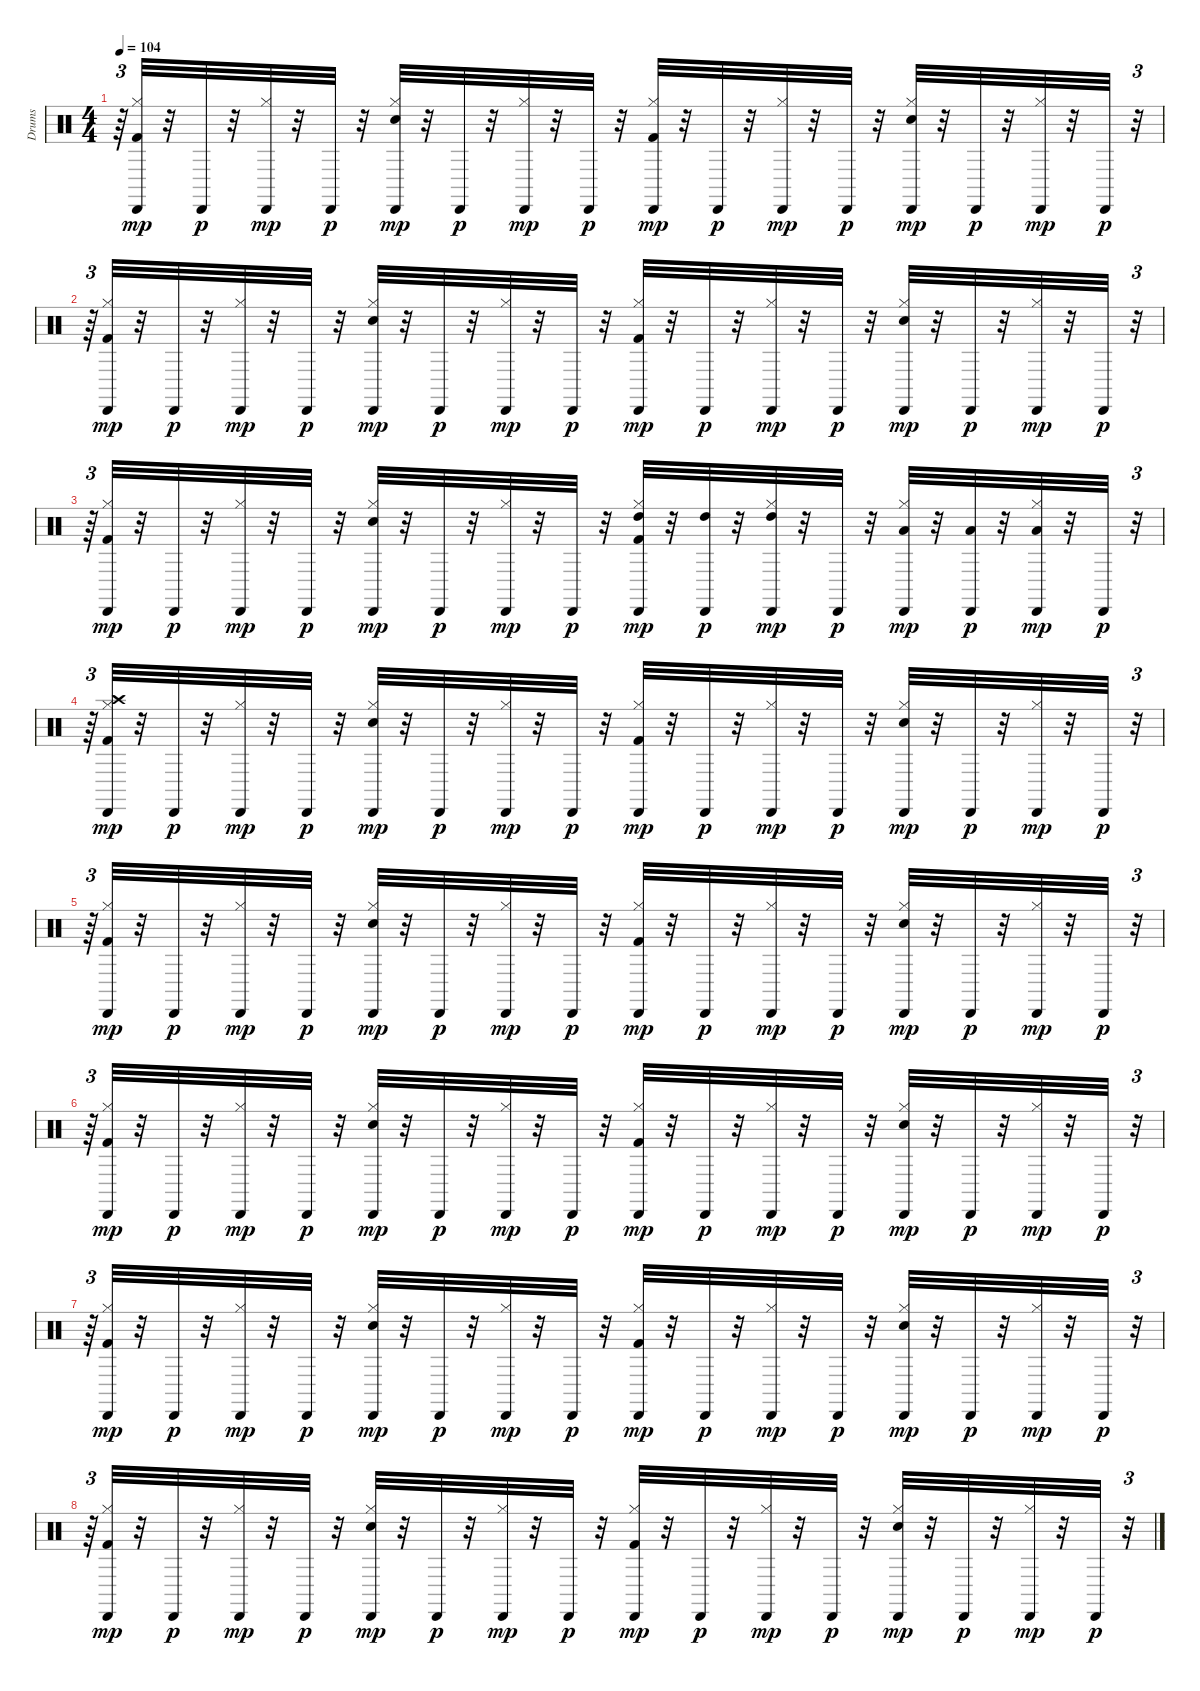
\track ("Drums               " "Drums     ") {instrument percussion}
\staff {score}
\articulation defaults
\ts (4 4)
\tempo 104
\clef neutral
\ks c
r.64{tu (3 2) dy p} ("Kick (hit) 2" "Hi-Hat (closed)" "Cabasa (hit)").32{dy mp} r.32 "Cabasa (hit)".32{dy p} r.32 ("Hi-Hat (closed)" "Cabasa (hit)").32{dy mp} r.32 "Cabasa (hit)".32{dy p} r.32 ("Snare (hit) 2" "Hi-Hat (closed)" "Cabasa (hit)").32{dy mp} r.32 "Cabasa (hit)".32{dy p} r.32 ("Hi-Hat (closed)" "Cabasa (hit)").32{dy mp} r.32 "Cabasa (hit)".32{dy p} r.32 ("Kick (hit) 2" "Hi-Hat (closed)" "Cabasa (hit)").32{dy mp} r.32 "Cabasa (hit)".32{dy p} r.32 ("Hi-Hat (closed)" "Cabasa (hit)").32{dy mp} r.32 "Cabasa (hit)".32{dy p} r.32 ("Snare (hit) 2" "Hi-Hat (closed)" "Cabasa (hit)").32{dy mp} r.32 "Cabasa (hit)".32{dy p} r.32 ("Hi-Hat (closed)" "Cabasa (hit)").32{dy mp} r.32 "Cabasa (hit)".32{dy p} r.32{tu (3 2)} |
r.64{tu (3 2)} ("Kick (hit) 2" "Hi-Hat (closed)" "Cabasa (hit)").32{dy mp} r.32 "Cabasa (hit)".32{dy p} r.32 ("Hi-Hat (closed)" "Cabasa (hit)").32{dy mp} r.32 "Cabasa (hit)".32{dy p} r.32 ("Snare (hit) 2" "Hi-Hat (closed)" "Cabasa (hit)").32{dy mp} r.32 "Cabasa (hit)".32{dy p} r.32 ("Hi-Hat (closed)" "Cabasa (hit)").32{dy mp} r.32 "Cabasa (hit)".32{dy p} r.32 ("Kick (hit) 2" "Hi-Hat (closed)" "Cabasa (hit)").32{dy mp} r.32 "Cabasa (hit)".32{dy p} r.32 ("Hi-Hat (closed)" "Cabasa (hit)").32{dy mp} r.32 "Cabasa (hit)".32{dy p} r.32 ("Snare (hit) 2" "Hi-Hat (closed)" "Cabasa (hit)").32{dy mp} r.32 "Cabasa (hit)".32{dy p} r.32 ("Hi-Hat (closed)" "Cabasa (hit)").32{dy mp} r.32 "Cabasa (hit)".32{dy p} r.32{tu (3 2)} |
r.64{tu (3 2)} ("Kick (hit) 2" "Hi-Hat (closed)" "Cabasa (hit)").32{dy mp} r.32 "Cabasa (hit)".32{dy p} r.32 ("Hi-Hat (closed)" "Cabasa (hit)").32{dy mp} r.32 "Cabasa (hit)".32{dy p} r.32 ("Snare (hit) 2" "Hi-Hat (closed)" "Cabasa (hit)").32{dy mp} r.32 "Cabasa (hit)".32{dy p} r.32 ("Hi-Hat (closed)" "Cabasa (hit)").32{dy mp} r.32 "Cabasa (hit)".32{dy p} r.32 ("Kick (hit) 2" "Hi-Hat (closed)" "High Tom (hit)" "Cabasa (hit)").32{dy mp} r.32 ("High Tom (hit)" "Cabasa (hit)").32{dy p} r.32 ("Hi-Hat (closed)" "High Tom (hit)" "Cabasa (hit)").32{dy mp} r.32 "Cabasa (hit)".32{dy p} r.32 ("Hi-Hat (closed)" "Low Tom (hit)" "Cabasa (hit)").32{dy mp} r.32 ("Low Tom (hit)" "Cabasa (hit)").32{dy p} r.32 ("Hi-Hat (closed)" "Low Tom (hit)" "Cabasa (hit)").32{dy mp} r.32 "Cabasa (hit)".32{dy p} r.32{tu (3 2)} |
r.64{tu (3 2)} ("Kick (hit) 2" "Hi-Hat (closed)" "Crash high (hit)" "Cabasa (hit)").32{dy mp} r.32 "Cabasa (hit)".32{dy p} r.32 ("Hi-Hat (closed)" "Cabasa (hit)").32{dy mp} r.32 "Cabasa (hit)".32{dy p} r.32 ("Snare (hit) 2" "Hi-Hat (closed)" "Cabasa (hit)").32{dy mp} r.32 "Cabasa (hit)".32{dy p} r.32 ("Hi-Hat (closed)" "Cabasa (hit)").32{dy mp} r.32 "Cabasa (hit)".32{dy p} r.32 ("Kick (hit) 2" "Hi-Hat (closed)" "Cabasa (hit)").32{dy mp} r.32 "Cabasa (hit)".32{dy p} r.32 ("Hi-Hat (closed)" "Cabasa (hit)").32{dy mp} r.32 "Cabasa (hit)".32{dy p} r.32 ("Snare (hit) 2" "Hi-Hat (closed)" "Cabasa (hit)").32{dy mp} r.32 "Cabasa (hit)".32{dy p} r.32 ("Hi-Hat (closed)" "Cabasa (hit)").32{dy mp} r.32 "Cabasa (hit)".32{dy p} r.32{tu (3 2)} |
r.64{tu (3 2)} ("Kick (hit) 2" "Hi-Hat (closed)" "Cabasa (hit)").32{dy mp} r.32 "Cabasa (hit)".32{dy p} r.32 ("Hi-Hat (closed)" "Cabasa (hit)").32{dy mp} r.32 "Cabasa (hit)".32{dy p} r.32 ("Snare (hit) 2" "Hi-Hat (closed)" "Cabasa (hit)").32{dy mp} r.32 "Cabasa (hit)".32{dy p} r.32 ("Hi-Hat (closed)" "Cabasa (hit)").32{dy mp} r.32 "Cabasa (hit)".32{dy p} r.32 ("Kick (hit) 2" "Hi-Hat (closed)" "Cabasa (hit)").32{dy mp} r.32 "Cabasa (hit)".32{dy p} r.32 ("Hi-Hat (closed)" "Cabasa (hit)").32{dy mp} r.32 "Cabasa (hit)".32{dy p} r.32 ("Snare (hit) 2" "Hi-Hat (closed)" "Cabasa (hit)").32{dy mp} r.32 "Cabasa (hit)".32{dy p} r.32 ("Hi-Hat (closed)" "Cabasa (hit)").32{dy mp} r.32 "Cabasa (hit)".32{dy p} r.32{tu (3 2)} |
r.64{tu (3 2)} ("Kick (hit) 2" "Hi-Hat (closed)" "Cabasa (hit)").32{dy mp} r.32 "Cabasa (hit)".32{dy p} r.32 ("Hi-Hat (closed)" "Cabasa (hit)").32{dy mp} r.32 "Cabasa (hit)".32{dy p} r.32 ("Snare (hit) 2" "Hi-Hat (closed)" "Cabasa (hit)").32{dy mp} r.32 "Cabasa (hit)".32{dy p} r.32 ("Hi-Hat (closed)" "Cabasa (hit)").32{dy mp} r.32 "Cabasa (hit)".32{dy p} r.32 ("Kick (hit) 2" "Hi-Hat (closed)" "Cabasa (hit)").32{dy mp} r.32 "Cabasa (hit)".32{dy p} r.32 ("Hi-Hat (closed)" "Cabasa (hit)").32{dy mp} r.32 "Cabasa (hit)".32{dy p} r.32 ("Snare (hit) 2" "Hi-Hat (closed)" "Cabasa (hit)").32{dy mp} r.32 "Cabasa (hit)".32{dy p} r.32 ("Hi-Hat (closed)" "Cabasa (hit)").32{dy mp} r.32 "Cabasa (hit)".32{dy p} r.32{tu (3 2)} |
r.64{tu (3 2)} ("Kick (hit) 2" "Hi-Hat (closed)" "Cabasa (hit)").32{dy mp} r.32 "Cabasa (hit)".32{dy p} r.32 ("Hi-Hat (closed)" "Cabasa (hit)").32{dy mp} r.32 "Cabasa (hit)".32{dy p} r.32 ("Snare (hit) 2" "Hi-Hat (closed)" "Cabasa (hit)").32{dy mp} r.32 "Cabasa (hit)".32{dy p} r.32 ("Hi-Hat (closed)" "Cabasa (hit)").32{dy mp} r.32 "Cabasa (hit)".32{dy p} r.32 ("Kick (hit) 2" "Hi-Hat (closed)" "Cabasa (hit)").32{dy mp} r.32 "Cabasa (hit)".32{dy p} r.32 ("Hi-Hat (closed)" "Cabasa (hit)").32{dy mp} r.32 "Cabasa (hit)".32{dy p} r.32 ("Snare (hit) 2" "Hi-Hat (closed)" "Cabasa (hit)").32{dy mp} r.32 "Cabasa (hit)".32{dy p} r.32 ("Hi-Hat (closed)" "Cabasa (hit)").32{dy mp} r.32 "Cabasa (hit)".32{dy p} r.32{tu (3 2)} |
r.64{tu (3 2)} ("Kick (hit) 2" "Hi-Hat (closed)" "Cabasa (hit)").32{dy mp} r.32 "Cabasa (hit)".32{dy p} r.32 ("Hi-Hat (closed)" "Cabasa (hit)").32{dy mp} r.32 "Cabasa (hit)".32{dy p} r.32 ("Snare (hit) 2" "Hi-Hat (closed)" "Cabasa (hit)").32{dy mp} r.32 "Cabasa (hit)".32{dy p} r.32 ("Hi-Hat (closed)" "Cabasa (hit)").32{dy mp} r.32 "Cabasa (hit)".32{dy p} r.32 ("Kick (hit) 2" "Hi-Hat (closed)" "Cabasa (hit)").32{dy mp} r.32 "Cabasa (hit)".32{dy p} r.32 ("Hi-Hat (closed)" "Cabasa (hit)").32{dy mp} r.32 "Cabasa (hit)".32{dy p} r.32 ("Snare (hit) 2" "Hi-Hat (closed)" "Cabasa (hit)").32{dy mp} r.32 "Cabasa (hit)".32{dy p} r.32 ("Hi-Hat (closed)" "Cabasa (hit)").32{dy mp} r.32 "Cabasa (hit)".32{dy p} r.32{tu (3 2)}
